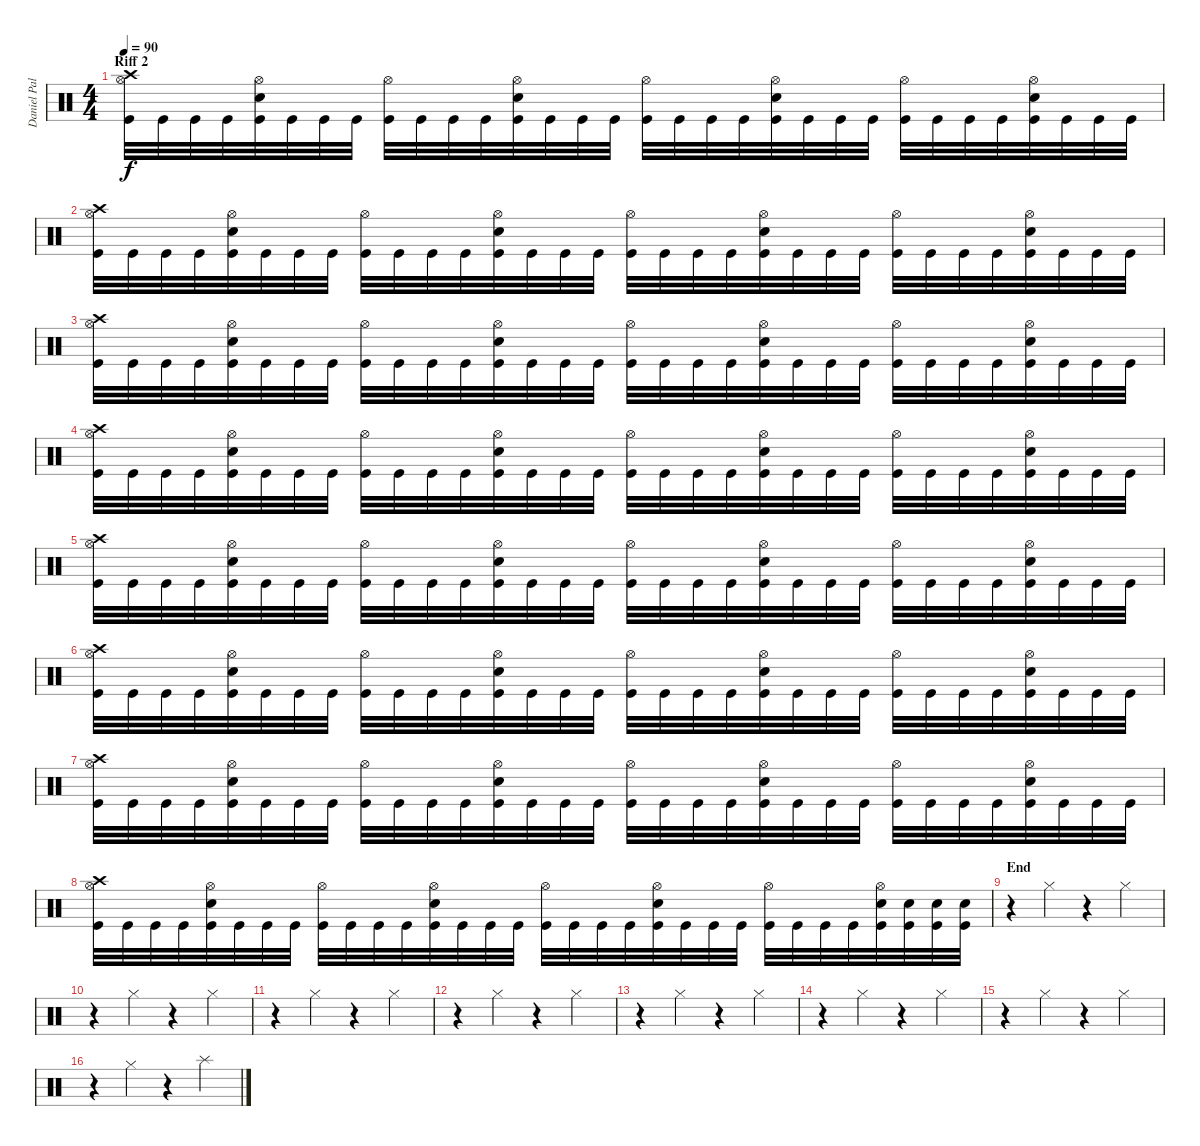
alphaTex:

\track ("Daniel Pal" "Daniel Pal") {instrument percussion}
\staff {score}
\articulation defaults
\ts (4 4)
\section ("" "Riff 2")
\tempo 90
\clef neutral
\ks c
("Crash high (hit)" "Hi-Hat (open)" "Kick (hit)").32{dy f} "Kick (hit)".32 "Kick (hit)".32 "Kick (hit)".32 ("Hi-Hat (open)" "Electric Snare (hit)" "Kick (hit)").32 "Kick (hit)".32 "Kick (hit)".32 "Kick (hit)".32 ("Hi-Hat (open)" "Kick (hit)").32 "Kick (hit)".32 "Kick (hit)".32 "Kick (hit)".32 ("Hi-Hat (open)" "Electric Snare (hit)" "Kick (hit)").32 "Kick (hit)".32 "Kick (hit)".32 "Kick (hit)".32 ("Hi-Hat (open)" "Kick (hit)").32 "Kick (hit)".32 "Kick (hit)".32 "Kick (hit)".32 ("Hi-Hat (open)" "Electric Snare (hit)" "Kick (hit)").32 "Kick (hit)".32 "Kick (hit)".32 "Kick (hit)".32 ("Hi-Hat (open)" "Kick (hit)").32 "Kick (hit)".32 "Kick (hit)".32 "Kick (hit)".32 ("Hi-Hat (open)" "Electric Snare (hit)" "Kick (hit)").32 "Kick (hit)".32 "Kick (hit)".32 "Kick (hit)".32 |
("Crash high (hit)" "Hi-Hat (open)" "Kick (hit)").32 "Kick (hit)".32 "Kick (hit)".32 "Kick (hit)".32 ("Hi-Hat (open)" "Electric Snare (hit)" "Kick (hit)").32 "Kick (hit)".32 "Kick (hit)".32 "Kick (hit)".32 ("Hi-Hat (open)" "Kick (hit)").32 "Kick (hit)".32 "Kick (hit)".32 "Kick (hit)".32 ("Hi-Hat (open)" "Electric Snare (hit)" "Kick (hit)").32 "Kick (hit)".32 "Kick (hit)".32 "Kick (hit)".32 ("Hi-Hat (open)" "Kick (hit)").32 "Kick (hit)".32 "Kick (hit)".32 "Kick (hit)".32 ("Hi-Hat (open)" "Electric Snare (hit)" "Kick (hit)").32 "Kick (hit)".32 "Kick (hit)".32 "Kick (hit)".32 ("Hi-Hat (open)" "Kick (hit)").32 "Kick (hit)".32 "Kick (hit)".32 "Kick (hit)".32 ("Hi-Hat (open)" "Electric Snare (hit)" "Kick (hit)").32 "Kick (hit)".32 "Kick (hit)".32 "Kick (hit)".32 |
("Crash high (hit)" "Hi-Hat (open)" "Kick (hit)").32 "Kick (hit)".32 "Kick (hit)".32 "Kick (hit)".32 ("Hi-Hat (open)" "Electric Snare (hit)" "Kick (hit)").32 "Kick (hit)".32 "Kick (hit)".32 "Kick (hit)".32 ("Hi-Hat (open)" "Kick (hit)").32 "Kick (hit)".32 "Kick (hit)".32 "Kick (hit)".32 ("Hi-Hat (open)" "Electric Snare (hit)" "Kick (hit)").32 "Kick (hit)".32 "Kick (hit)".32 "Kick (hit)".32 ("Hi-Hat (open)" "Kick (hit)").32 "Kick (hit)".32 "Kick (hit)".32 "Kick (hit)".32 ("Hi-Hat (open)" "Electric Snare (hit)" "Kick (hit)").32 "Kick (hit)".32 "Kick (hit)".32 "Kick (hit)".32 ("Hi-Hat (open)" "Kick (hit)").32 "Kick (hit)".32 "Kick (hit)".32 "Kick (hit)".32 ("Hi-Hat (open)" "Electric Snare (hit)" "Kick (hit)").32 "Kick (hit)".32 "Kick (hit)".32 "Kick (hit)".32 |
("Crash high (hit)" "Hi-Hat (open)" "Kick (hit)").32 "Kick (hit)".32 "Kick (hit)".32 "Kick (hit)".32 ("Hi-Hat (open)" "Electric Snare (hit)" "Kick (hit)").32 "Kick (hit)".32 "Kick (hit)".32 "Kick (hit)".32 ("Hi-Hat (open)" "Kick (hit)").32 "Kick (hit)".32 "Kick (hit)".32 "Kick (hit)".32 ("Hi-Hat (open)" "Electric Snare (hit)" "Kick (hit)").32 "Kick (hit)".32 "Kick (hit)".32 "Kick (hit)".32 ("Hi-Hat (open)" "Kick (hit)").32 "Kick (hit)".32 "Kick (hit)".32 "Kick (hit)".32 ("Hi-Hat (open)" "Electric Snare (hit)" "Kick (hit)").32 "Kick (hit)".32 "Kick (hit)".32 "Kick (hit)".32 ("Hi-Hat (open)" "Kick (hit)").32 "Kick (hit)".32 "Kick (hit)".32 "Kick (hit)".32 ("Hi-Hat (open)" "Electric Snare (hit)" "Kick (hit)").32 "Kick (hit)".32 "Kick (hit)".32 "Kick (hit)".32 |
("Crash high (hit)" "Hi-Hat (open)" "Kick (hit)").32 "Kick (hit)".32 "Kick (hit)".32 "Kick (hit)".32 ("Hi-Hat (open)" "Electric Snare (hit)" "Kick (hit)").32 "Kick (hit)".32 "Kick (hit)".32 "Kick (hit)".32 ("Hi-Hat (open)" "Kick (hit)").32 "Kick (hit)".32 "Kick (hit)".32 "Kick (hit)".32 ("Hi-Hat (open)" "Electric Snare (hit)" "Kick (hit)").32 "Kick (hit)".32 "Kick (hit)".32 "Kick (hit)".32 ("Hi-Hat (open)" "Kick (hit)").32 "Kick (hit)".32 "Kick (hit)".32 "Kick (hit)".32 ("Hi-Hat (open)" "Electric Snare (hit)" "Kick (hit)").32 "Kick (hit)".32 "Kick (hit)".32 "Kick (hit)".32 ("Hi-Hat (open)" "Kick (hit)").32 "Kick (hit)".32 "Kick (hit)".32 "Kick (hit)".32 ("Hi-Hat (open)" "Electric Snare (hit)" "Kick (hit)").32 "Kick (hit)".32 "Kick (hit)".32 "Kick (hit)".32 |
("Crash high (hit)" "Hi-Hat (open)" "Kick (hit)").32 "Kick (hit)".32 "Kick (hit)".32 "Kick (hit)".32 ("Hi-Hat (open)" "Electric Snare (hit)" "Kick (hit)").32 "Kick (hit)".32 "Kick (hit)".32 "Kick (hit)".32 ("Hi-Hat (open)" "Kick (hit)").32 "Kick (hit)".32 "Kick (hit)".32 "Kick (hit)".32 ("Hi-Hat (open)" "Electric Snare (hit)" "Kick (hit)").32 "Kick (hit)".32 "Kick (hit)".32 "Kick (hit)".32 ("Hi-Hat (open)" "Kick (hit)").32 "Kick (hit)".32 "Kick (hit)".32 "Kick (hit)".32 ("Hi-Hat (open)" "Electric Snare (hit)" "Kick (hit)").32 "Kick (hit)".32 "Kick (hit)".32 "Kick (hit)".32 ("Hi-Hat (open)" "Kick (hit)").32 "Kick (hit)".32 "Kick (hit)".32 "Kick (hit)".32 ("Hi-Hat (open)" "Electric Snare (hit)" "Kick (hit)").32 "Kick (hit)".32 "Kick (hit)".32 "Kick (hit)".32 |
("Crash high (hit)" "Hi-Hat (open)" "Kick (hit)").32 "Kick (hit)".32 "Kick (hit)".32 "Kick (hit)".32 ("Hi-Hat (open)" "Electric Snare (hit)" "Kick (hit)").32 "Kick (hit)".32 "Kick (hit)".32 "Kick (hit)".32 ("Hi-Hat (open)" "Kick (hit)").32 "Kick (hit)".32 "Kick (hit)".32 "Kick (hit)".32 ("Hi-Hat (open)" "Electric Snare (hit)" "Kick (hit)").32 "Kick (hit)".32 "Kick (hit)".32 "Kick (hit)".32 ("Hi-Hat (open)" "Kick (hit)").32 "Kick (hit)".32 "Kick (hit)".32 "Kick (hit)".32 ("Hi-Hat (open)" "Electric Snare (hit)" "Kick (hit)").32 "Kick (hit)".32 "Kick (hit)".32 "Kick (hit)".32 ("Hi-Hat (open)" "Kick (hit)").32 "Kick (hit)".32 "Kick (hit)".32 "Kick (hit)".32 ("Hi-Hat (open)" "Electric Snare (hit)" "Kick (hit)").32 "Kick (hit)".32 "Kick (hit)".32 "Kick (hit)".32 |
("Crash high (hit)" "Hi-Hat (open)" "Kick (hit)").32 "Kick (hit)".32 "Kick (hit)".32 "Kick (hit)".32 ("Hi-Hat (open)" "Electric Snare (hit)" "Kick (hit)").32 "Kick (hit)".32 "Kick (hit)".32 "Kick (hit)".32 ("Hi-Hat (open)" "Kick (hit)").32 "Kick (hit)".32 "Kick (hit)".32 "Kick (hit)".32 ("Hi-Hat (open)" "Electric Snare (hit)" "Kick (hit)").32 "Kick (hit)".32 "Kick (hit)".32 "Kick (hit)".32 ("Hi-Hat (open)" "Kick (hit)").32 "Kick (hit)".32 "Kick (hit)".32 "Kick (hit)".32 ("Hi-Hat (open)" "Electric Snare (hit)" "Kick (hit)").32 "Kick (hit)".32 "Kick (hit)".32 "Kick (hit)".32 ("Hi-Hat (open)" "Kick (hit)").32 "Kick (hit)".32 "Kick (hit)".32 "Kick (hit)".32 ("Hi-Hat (open)" "Electric Snare (hit)" "Kick (hit)").32 ("Electric Snare (hit)" "Kick (hit)").32 ("Electric Snare (hit)" "Kick (hit)").32 ("Electric Snare (hit)" "Kick (hit)").32 |
\section ("" "End")
r.4 "Hi-Hat (closed)".4 r.4 "Hi-Hat (closed)".4 |
r.4 "Hi-Hat (closed)".4 r.4 "Hi-Hat (closed)".4 |
r.4 "Hi-Hat (closed)".4 r.4 "Hi-Hat (closed)".4 |
r.4 "Hi-Hat (closed)".4 r.4 "Hi-Hat (closed)".4 |
r.4 "Hi-Hat (closed)".4 r.4 "Hi-Hat (closed)".4 |
r.4 "Hi-Hat (closed)".4 r.4 "Hi-Hat (closed)".4 |
r.4 "Hi-Hat (closed)".4 r.4 "Hi-Hat (closed)".4 |
r.4 "Hi-Hat (closed)".4 r.4 "Splash (hit)".4
